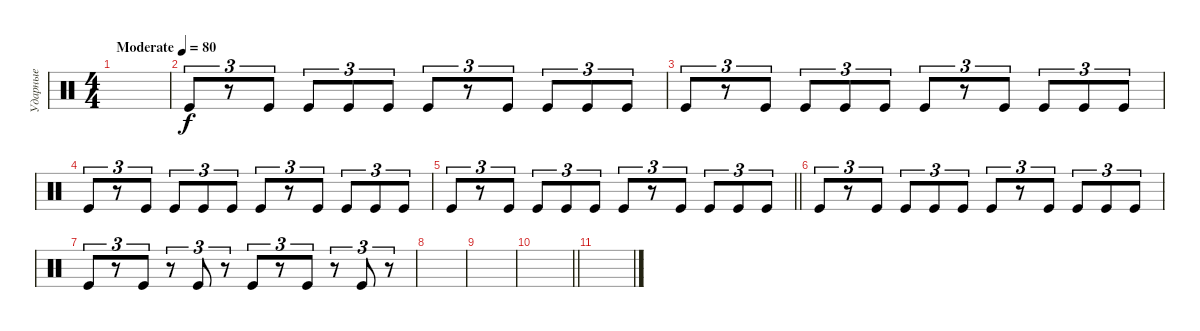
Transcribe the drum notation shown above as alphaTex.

\track ("Ударные" "Ударные") {instrument percussion}
\staff {score}
\articulation defaults
\ts (4 4)
\tempo (80 "Moderate")
\clef neutral
\ks c
|
"Kick (hit)".8{tu (3 2)} r.8{tu (3 2)} "Kick (hit)".8{tu (3 2)} "Kick (hit)".8{tu (3 2)} "Kick (hit)".8{tu (3 2)} "Kick (hit)".8{tu (3 2)} "Kick (hit)".8{tu (3 2)} r.8{tu (3 2)} "Kick (hit)".8{tu (3 2)} "Kick (hit)".8{tu (3 2)} "Kick (hit)".8{tu (3 2)} "Kick (hit)".8{tu (3 2)} |
"Kick (hit)".8{tu (3 2)} r.8{tu (3 2)} "Kick (hit)".8{tu (3 2)} "Kick (hit)".8{tu (3 2)} "Kick (hit)".8{tu (3 2)} "Kick (hit)".8{tu (3 2)} "Kick (hit)".8{tu (3 2)} r.8{tu (3 2)} "Kick (hit)".8{tu (3 2)} "Kick (hit)".8{tu (3 2)} "Kick (hit)".8{tu (3 2)} "Kick (hit)".8{tu (3 2)} |
"Kick (hit)".8{tu (3 2)} r.8{tu (3 2)} "Kick (hit)".8{tu (3 2)} "Kick (hit)".8{tu (3 2)} "Kick (hit)".8{tu (3 2)} "Kick (hit)".8{tu (3 2)} "Kick (hit)".8{tu (3 2)} r.8{tu (3 2)} "Kick (hit)".8{tu (3 2)} "Kick (hit)".8{tu (3 2)} "Kick (hit)".8{tu (3 2)} "Kick (hit)".8{tu (3 2)} |
\barLineRight lightlight "Kick (hit)".8{tu (3 2)}
r.8{tu (3 2)} "Kick (hit)".8{tu (3 2)} "Kick (hit)".8{tu (3 2)} "Kick (hit)".8{tu (3 2)} "Kick (hit)".8{tu (3 2)} "Kick (hit)".8{tu (3 2)} r.8{tu (3 2)} "Kick (hit)".8{tu (3 2)} "Kick (hit)".8{tu (3 2)} "Kick (hit)".8{tu (3 2)} "Kick (hit)".8{tu (3 2)} |
\section ("" " ")
"Kick (hit)".8{tu (3 2)} r.8{tu (3 2)} "Kick (hit)".8{tu (3 2)} "Kick (hit)".8{tu (3 2)} "Kick (hit)".8{tu (3 2)} "Kick (hit)".8{tu (3 2)} "Kick (hit)".8{tu (3 2)} r.8{tu (3 2)} "Kick (hit)".8{tu (3 2)} "Kick (hit)".8{tu (3 2)} "Kick (hit)".8{tu (3 2)} "Kick (hit)".8{tu (3 2)} |
"Kick (hit)".8{tu (3 2)} r.8{tu (3 2)} "Kick (hit)".8{tu (3 2)} r.8{tu (3 2)} "Kick (hit)".8{tu (3 2)} r.8{tu (3 2)} "Kick (hit)".8{tu (3 2)} r.8{tu (3 2)} "Kick (hit)".8{tu (3 2)} r.8{tu (3 2)} "Kick (hit)".8{tu (3 2)} r.8{tu (3 2)} |
|
|
\barLineRight lightlight
|
\section ("" " ")
